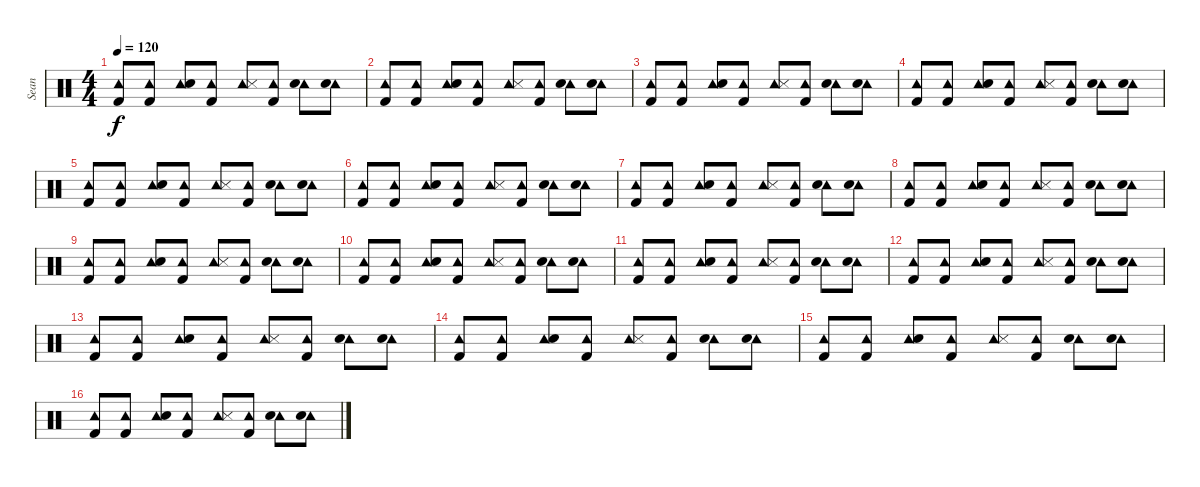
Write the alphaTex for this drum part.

\track ("Sean" "Sean") {instrument percussion}
\staff {score}
\articulation defaults
\ts (4 4)
\tempo 120
\clef neutral
\ks c
("Tambourine (hit)" "Kick (hit) 2").8{dy f} ("Tambourine (hit)" "Kick (hit) 2").8 ("Tambourine (hit)" "Electric Snare (hit)").8 ("Tambourine (hit)" "Kick (hit) 2").8 ("Tambourine (hit)" "Snare (side stick) 3").8 ("Tambourine (hit)" "Kick (hit) 2").8 ("Tambourine (hit)" "Electric Snare (hit)").8 ("Tambourine (hit)" "Electric Snare (hit)").8 |
("Tambourine (hit)" "Kick (hit) 2").8 ("Tambourine (hit)" "Kick (hit) 2").8 ("Tambourine (hit)" "Electric Snare (hit)").8 ("Tambourine (hit)" "Kick (hit) 2").8 ("Tambourine (hit)" "Snare (side stick) 3").8 ("Tambourine (hit)" "Kick (hit) 2").8 ("Tambourine (hit)" "Electric Snare (hit)").8 ("Tambourine (hit)" "Electric Snare (hit)").8 |
("Tambourine (hit)" "Kick (hit) 2").8 ("Tambourine (hit)" "Kick (hit) 2").8 ("Tambourine (hit)" "Electric Snare (hit)").8 ("Tambourine (hit)" "Kick (hit) 2").8 ("Tambourine (hit)" "Snare (side stick) 3").8 ("Tambourine (hit)" "Kick (hit) 2").8 ("Tambourine (hit)" "Electric Snare (hit)").8 ("Tambourine (hit)" "Electric Snare (hit)").8 |
("Tambourine (hit)" "Kick (hit) 2").8 ("Tambourine (hit)" "Kick (hit) 2").8 ("Tambourine (hit)" "Electric Snare (hit)").8 ("Tambourine (hit)" "Kick (hit) 2").8 ("Tambourine (hit)" "Snare (side stick) 3").8 ("Tambourine (hit)" "Kick (hit) 2").8 ("Tambourine (hit)" "Electric Snare (hit)").8 ("Tambourine (hit)" "Electric Snare (hit)").8 |
("Tambourine (hit)" "Kick (hit) 2").8 ("Tambourine (hit)" "Kick (hit) 2").8 ("Tambourine (hit)" "Electric Snare (hit)").8 ("Tambourine (hit)" "Kick (hit) 2").8 ("Tambourine (hit)" "Snare (side stick) 3").8 ("Tambourine (hit)" "Kick (hit) 2").8 ("Tambourine (hit)" "Electric Snare (hit)").8 ("Tambourine (hit)" "Electric Snare (hit)").8 |
("Tambourine (hit)" "Kick (hit) 2").8 ("Tambourine (hit)" "Kick (hit) 2").8 ("Tambourine (hit)" "Electric Snare (hit)").8 ("Tambourine (hit)" "Kick (hit) 2").8 ("Tambourine (hit)" "Snare (side stick) 3").8 ("Tambourine (hit)" "Kick (hit) 2").8 ("Tambourine (hit)" "Electric Snare (hit)").8 ("Tambourine (hit)" "Electric Snare (hit)").8 |
("Tambourine (hit)" "Kick (hit) 2").8 ("Tambourine (hit)" "Kick (hit) 2").8 ("Tambourine (hit)" "Electric Snare (hit)").8 ("Tambourine (hit)" "Kick (hit) 2").8 ("Tambourine (hit)" "Snare (side stick) 3").8 ("Tambourine (hit)" "Kick (hit) 2").8 ("Tambourine (hit)" "Electric Snare (hit)").8 ("Tambourine (hit)" "Electric Snare (hit)").8 |
("Tambourine (hit)" "Kick (hit) 2").8 ("Tambourine (hit)" "Kick (hit) 2").8 ("Tambourine (hit)" "Electric Snare (hit)").8 ("Tambourine (hit)" "Kick (hit) 2").8 ("Tambourine (hit)" "Snare (side stick) 3").8 ("Tambourine (hit)" "Kick (hit) 2").8 ("Tambourine (hit)" "Electric Snare (hit)").8 ("Tambourine (hit)" "Electric Snare (hit)").8 |
("Tambourine (hit)" "Kick (hit) 2").8 ("Tambourine (hit)" "Kick (hit) 2").8 ("Tambourine (hit)" "Electric Snare (hit)").8 ("Tambourine (hit)" "Kick (hit) 2").8 ("Tambourine (hit)" "Snare (side stick) 3").8 ("Tambourine (hit)" "Kick (hit) 2").8 ("Tambourine (hit)" "Electric Snare (hit)").8 ("Tambourine (hit)" "Electric Snare (hit)").8 |
("Tambourine (hit)" "Kick (hit) 2").8 ("Tambourine (hit)" "Kick (hit) 2").8 ("Tambourine (hit)" "Electric Snare (hit)").8 ("Tambourine (hit)" "Kick (hit) 2").8 ("Tambourine (hit)" "Snare (side stick) 3").8 ("Tambourine (hit)" "Kick (hit) 2").8 ("Tambourine (hit)" "Electric Snare (hit)").8 ("Tambourine (hit)" "Electric Snare (hit)").8 |
("Tambourine (hit)" "Kick (hit) 2").8 ("Tambourine (hit)" "Kick (hit) 2").8 ("Tambourine (hit)" "Electric Snare (hit)").8 ("Tambourine (hit)" "Kick (hit) 2").8 ("Tambourine (hit)" "Snare (side stick) 3").8 ("Tambourine (hit)" "Kick (hit) 2").8 ("Tambourine (hit)" "Electric Snare (hit)").8 ("Tambourine (hit)" "Electric Snare (hit)").8 |
("Tambourine (hit)" "Kick (hit) 2").8 ("Tambourine (hit)" "Kick (hit) 2").8 ("Tambourine (hit)" "Electric Snare (hit)").8 ("Tambourine (hit)" "Kick (hit) 2").8 ("Tambourine (hit)" "Snare (side stick) 3").8 ("Tambourine (hit)" "Kick (hit) 2").8 ("Tambourine (hit)" "Electric Snare (hit)").8 ("Tambourine (hit)" "Electric Snare (hit)").8 |
("Tambourine (hit)" "Kick (hit) 2").8 ("Tambourine (hit)" "Kick (hit) 2").8 ("Tambourine (hit)" "Electric Snare (hit)").8 ("Tambourine (hit)" "Kick (hit) 2").8 ("Tambourine (hit)" "Snare (side stick) 3").8 ("Tambourine (hit)" "Kick (hit) 2").8 ("Tambourine (hit)" "Electric Snare (hit)").8 ("Tambourine (hit)" "Electric Snare (hit)").8 |
("Tambourine (hit)" "Kick (hit) 2").8 ("Tambourine (hit)" "Kick (hit) 2").8 ("Tambourine (hit)" "Electric Snare (hit)").8 ("Tambourine (hit)" "Kick (hit) 2").8 ("Tambourine (hit)" "Snare (side stick) 3").8 ("Tambourine (hit)" "Kick (hit) 2").8 ("Tambourine (hit)" "Electric Snare (hit)").8 ("Tambourine (hit)" "Electric Snare (hit)").8 |
("Tambourine (hit)" "Kick (hit) 2").8 ("Tambourine (hit)" "Kick (hit) 2").8 ("Tambourine (hit)" "Electric Snare (hit)").8 ("Tambourine (hit)" "Kick (hit) 2").8 ("Tambourine (hit)" "Snare (side stick) 3").8 ("Tambourine (hit)" "Kick (hit) 2").8 ("Tambourine (hit)" "Electric Snare (hit)").8 ("Tambourine (hit)" "Electric Snare (hit)").8 |
("Tambourine (hit)" "Kick (hit) 2").8 ("Tambourine (hit)" "Kick (hit) 2").8 ("Tambourine (hit)" "Electric Snare (hit)").8 ("Tambourine (hit)" "Kick (hit) 2").8 ("Tambourine (hit)" "Snare (side stick) 3").8 ("Tambourine (hit)" "Kick (hit) 2").8 ("Tambourine (hit)" "Electric Snare (hit)").8 ("Tambourine (hit)" "Electric Snare (hit)").8
